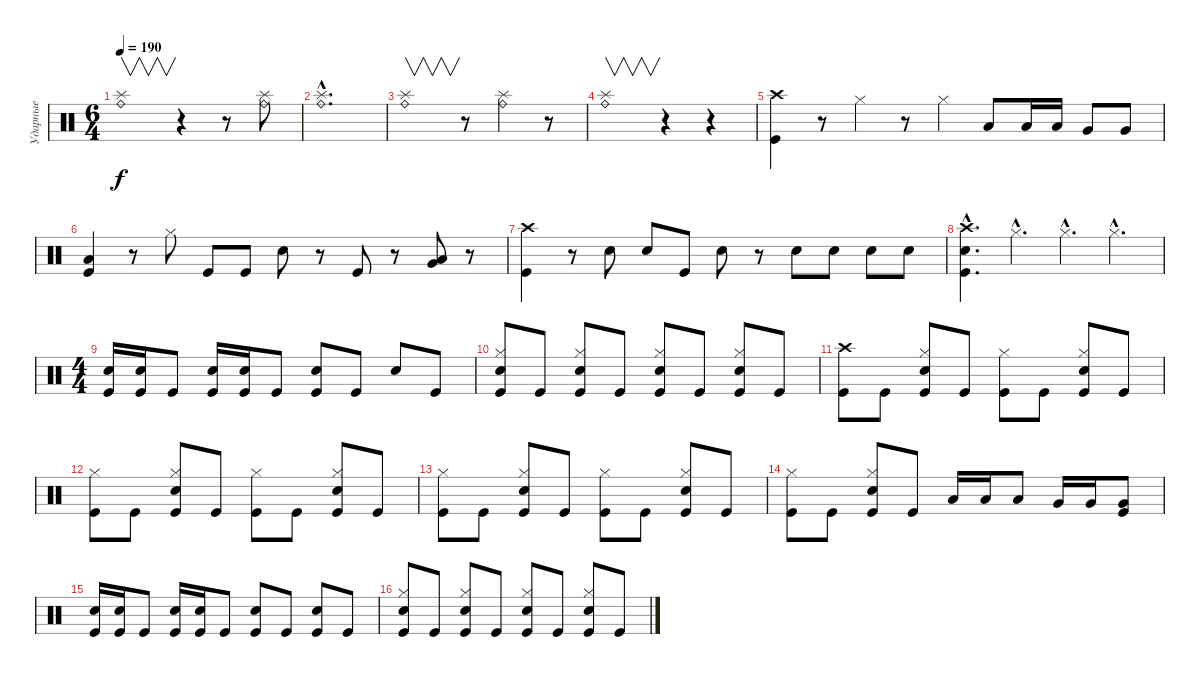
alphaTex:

\track ("Ударные" "Ударные") {instrument percussion}
\staff {score}
\articulation defaults
\ts (6 4)
\tempo 190
\clef neutral
\ks c
("Ride (bell)" "Splash (hit)").1{v dy f} r.4 r.8 ("Ride (bell)" "Splash (hit)").8 |
("Ride (bell)"{hac} "Splash (hit)"{hac}).1{d} |
("Ride (bell)" "Splash (hit)").1{v} r.8 ("Ride (bell)" "Splash (hit)").4 r.8 |
("Ride (bell)" "Splash (hit)").1{v} r.4 r.4 |
("Crash high (hit)" "Kick (hit)").4 r.8 "Hi-Hat (closed)".4 r.8 "Hi-Hat (closed)".4 "Low Tom (hit)".8 "Low Tom (hit)".16 "Low Tom (hit)".16 "Very Low Tom (hit)".8 "Very Low Tom (hit)".8 |
("Low Tom (hit)" "Kick (hit)").4 r.8 "Hi-Hat (closed)".8 "Kick (hit)".8 "Kick (hit)".8 "Electric Snare (hit)".8 r.8 "Kick (hit)".8 r.8 ("Low Tom (hit)" "Very Low Tom (hit)").8 r.8 |
("Crash high (hit)" "Kick (hit)").4 r.8 "Electric Snare (hit)".8 "Electric Snare (hit)".8 "Kick (hit)".8 "Electric Snare (hit)".8 r.8 "Electric Snare (hit)".8 "Electric Snare (hit)".8 "Electric Snare (hit)".8 "Electric Snare (hit)".8 |
("Crash high (hit)"{hac} "Electric Snare (hit)"{hac} "Kick (hit)"{hac}).4{d} "Hi-Hat (closed)"{hac}.4{d} "Hi-Hat (closed)"{hac}.4{d} "Hi-Hat (closed)"{hac}.4{d} |
\ts (4 4)
("Electric Snare (hit)" "Kick (hit)").16 ("Electric Snare (hit)" "Kick (hit)").16 "Kick (hit)".8 ("Electric Snare (hit)" "Kick (hit)").16 ("Electric Snare (hit)" "Kick (hit)").16 "Kick (hit)".8 ("Electric Snare (hit)" "Kick (hit)").8 "Kick (hit)".8 "Electric Snare (hit)".8 "Kick (hit)".8 |
("Hi-Hat (closed)" "Electric Snare (hit)" "Kick (hit)").8 "Kick (hit)".8 ("Hi-Hat (closed)" "Electric Snare (hit)" "Kick (hit)").8 "Kick (hit)".8 ("Hi-Hat (closed)" "Electric Snare (hit)" "Kick (hit)").8 "Kick (hit)".8 ("Hi-Hat (closed)" "Electric Snare (hit)" "Kick (hit)").8 "Kick (hit)".8 |
("Crash high (hit)" "Kick (hit)").8 "Kick (hit)".8 ("Hi-Hat (closed)" "Electric Snare (hit)" "Kick (hit)").8 "Kick (hit)".8 ("Hi-Hat (closed)" "Kick (hit)").8 "Kick (hit)".8 ("Hi-Hat (closed)" "Electric Snare (hit)" "Kick (hit)").8 "Kick (hit)".8 |
("Hi-Hat (closed)" "Kick (hit)").8 "Kick (hit)".8 ("Hi-Hat (closed)" "Electric Snare (hit)" "Kick (hit)").8 "Kick (hit)".8 ("Hi-Hat (closed)" "Kick (hit)").8 "Kick (hit)".8 ("Hi-Hat (closed)" "Electric Snare (hit)" "Kick (hit)").8 "Kick (hit)".8 |
("Hi-Hat (closed)" "Kick (hit)").8 "Kick (hit)".8 ("Hi-Hat (closed)" "Electric Snare (hit)" "Kick (hit)").8 "Kick (hit)".8 ("Hi-Hat (closed)" "Kick (hit)").8 "Kick (hit)".8 ("Hi-Hat (closed)" "Electric Snare (hit)" "Kick (hit)").8 "Kick (hit)".8 |
("Hi-Hat (closed)" "Kick (hit)").8 "Kick (hit)".8 ("Hi-Hat (closed)" "Electric Snare (hit)" "Kick (hit)").8 "Kick (hit)".8 "Low Tom (hit)".16 "Low Tom (hit)".16 "Low Tom (hit)".8 "Very Low Tom (hit)".16 "Very Low Tom (hit)".16 ("Very Low Tom (hit)" "Kick (hit)").8 |
("Electric Snare (hit)" "Kick (hit)").16 ("Electric Snare (hit)" "Kick (hit)").16 "Kick (hit)".8 ("Electric Snare (hit)" "Kick (hit)").16 ("Electric Snare (hit)" "Kick (hit)").16 "Kick (hit)".8 ("Electric Snare (hit)" "Kick (hit)").8 "Kick (hit)".8 ("Electric Snare (hit)" "Kick (hit)").8 "Kick (hit)".8 |
("Hi-Hat (closed)" "Electric Snare (hit)" "Kick (hit)").8 "Kick (hit)".8 ("Hi-Hat (closed)" "Electric Snare (hit)" "Kick (hit)").8 "Kick (hit)".8 ("Hi-Hat (closed)" "Electric Snare (hit)" "Kick (hit)").8 "Kick (hit)".8 ("Hi-Hat (closed)" "Electric Snare (hit)" "Kick (hit)").8 "Kick (hit)".8
